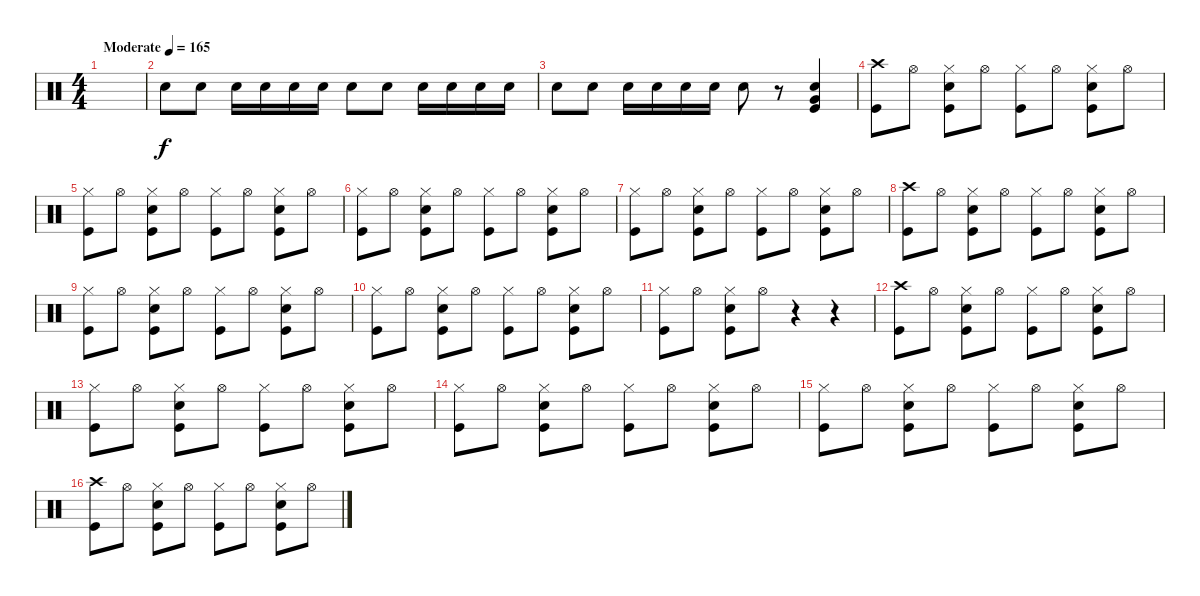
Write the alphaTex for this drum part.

\track "" {instrument percussion}
\staff {score}
\articulation defaults
\ts (4 4)
\tempo (165 "Moderate")
\clef neutral
\ks c
|
"Electric Snare (hit)".8 "Electric Snare (hit)".8 "Electric Snare (hit)".16 "Electric Snare (hit)".16 "Electric Snare (hit)".16 "Electric Snare (hit)".16 "Electric Snare (hit)".8 "Electric Snare (hit)".8 "Electric Snare (hit)".16 "Electric Snare (hit)".16 "Electric Snare (hit)".16 "Electric Snare (hit)".16 |
"Electric Snare (hit)".8 "Electric Snare (hit)".8 "Electric Snare (hit)".16 "Electric Snare (hit)".16 "Electric Snare (hit)".16 "Electric Snare (hit)".16 "Electric Snare (hit)".8 r.8 ("Electric Snare (hit)" "Very Low Tom (hit)" "Kick (hit)").4 |
("Crash high (hit)" "Kick (hit)").8 "Hi-Hat (open)".8 ("Hi-Hat (closed)" "Electric Snare (hit)" "Kick (hit)").8 "Hi-Hat (open)".8 ("Hi-Hat (closed)" "Kick (hit)").8 "Hi-Hat (open)".8 ("Hi-Hat (closed)" "Electric Snare (hit)" "Kick (hit)").8 "Hi-Hat (open)".8 |
("Hi-Hat (closed)" "Kick (hit)").8 "Hi-Hat (open)".8 ("Hi-Hat (closed)" "Electric Snare (hit)" "Kick (hit)").8 "Hi-Hat (open)".8 ("Hi-Hat (closed)" "Kick (hit)").8 "Hi-Hat (open)".8 ("Hi-Hat (closed)" "Electric Snare (hit)" "Kick (hit)").8 "Hi-Hat (open)".8 |
("Hi-Hat (closed)" "Kick (hit)").8 "Hi-Hat (open)".8 ("Hi-Hat (closed)" "Electric Snare (hit)" "Kick (hit)").8 "Hi-Hat (open)".8 ("Hi-Hat (closed)" "Kick (hit)").8 "Hi-Hat (open)".8 ("Hi-Hat (closed)" "Electric Snare (hit)" "Kick (hit)").8 "Hi-Hat (open)".8 |
("Hi-Hat (closed)" "Kick (hit)").8 "Hi-Hat (open)".8 ("Hi-Hat (closed)" "Electric Snare (hit)" "Kick (hit)").8 "Hi-Hat (open)".8 ("Hi-Hat (closed)" "Kick (hit)").8 "Hi-Hat (open)".8 ("Hi-Hat (closed)" "Electric Snare (hit)" "Kick (hit)").8 "Hi-Hat (open)".8 |
("Crash high (hit)" "Kick (hit)").8 "Hi-Hat (open)".8 ("Hi-Hat (closed)" "Electric Snare (hit)" "Kick (hit)").8 "Hi-Hat (open)".8 ("Hi-Hat (closed)" "Kick (hit)").8 "Hi-Hat (open)".8 ("Hi-Hat (closed)" "Electric Snare (hit)" "Kick (hit)").8 "Hi-Hat (open)".8 |
("Hi-Hat (closed)" "Kick (hit)").8 "Hi-Hat (open)".8 ("Hi-Hat (closed)" "Electric Snare (hit)" "Kick (hit)").8 "Hi-Hat (open)".8 ("Hi-Hat (closed)" "Kick (hit)").8 "Hi-Hat (open)".8 ("Hi-Hat (closed)" "Electric Snare (hit)" "Kick (hit)").8 "Hi-Hat (open)".8 |
("Hi-Hat (closed)" "Kick (hit)").8 "Hi-Hat (open)".8 ("Hi-Hat (closed)" "Electric Snare (hit)" "Kick (hit)").8 "Hi-Hat (open)".8 ("Hi-Hat (closed)" "Kick (hit)").8 "Hi-Hat (open)".8 ("Hi-Hat (closed)" "Electric Snare (hit)" "Kick (hit)").8 "Hi-Hat (open)".8 |
("Hi-Hat (closed)" "Kick (hit)").8 "Hi-Hat (open)".8 ("Hi-Hat (closed)" "Electric Snare (hit)" "Kick (hit)").8 "Hi-Hat (open)".8 r.4 r.4 |
("Crash high (hit)" "Kick (hit)").8 "Hi-Hat (open)".8 ("Hi-Hat (closed)" "Electric Snare (hit)" "Kick (hit)").8 "Hi-Hat (open)".8 ("Hi-Hat (closed)" "Kick (hit)").8 "Hi-Hat (open)".8 ("Hi-Hat (closed)" "Electric Snare (hit)" "Kick (hit)").8 "Hi-Hat (open)".8 |
("Hi-Hat (closed)" "Kick (hit)").8 "Hi-Hat (open)".8 ("Hi-Hat (closed)" "Electric Snare (hit)" "Kick (hit)").8 "Hi-Hat (open)".8 ("Hi-Hat (closed)" "Kick (hit)").8 "Hi-Hat (open)".8 ("Hi-Hat (closed)" "Electric Snare (hit)" "Kick (hit)").8 "Hi-Hat (open)".8 |
("Hi-Hat (closed)" "Kick (hit)").8 "Hi-Hat (open)".8 ("Hi-Hat (closed)" "Electric Snare (hit)" "Kick (hit)").8 "Hi-Hat (open)".8 ("Hi-Hat (closed)" "Kick (hit)").8 "Hi-Hat (open)".8 ("Hi-Hat (closed)" "Electric Snare (hit)" "Kick (hit)").8 "Hi-Hat (open)".8 |
("Hi-Hat (closed)" "Kick (hit)").8 "Hi-Hat (open)".8 ("Hi-Hat (closed)" "Electric Snare (hit)" "Kick (hit)").8 "Hi-Hat (open)".8 ("Hi-Hat (closed)" "Kick (hit)").8 "Hi-Hat (open)".8 ("Hi-Hat (closed)" "Electric Snare (hit)" "Kick (hit)").8 "Hi-Hat (open)".8 |
("Crash high (hit)" "Kick (hit)").8 "Hi-Hat (open)".8 ("Hi-Hat (closed)" "Electric Snare (hit)" "Kick (hit)").8 "Hi-Hat (open)".8 ("Hi-Hat (closed)" "Kick (hit)").8 "Hi-Hat (open)".8 ("Hi-Hat (closed)" "Electric Snare (hit)" "Kick (hit)").8 "Hi-Hat (open)".8
